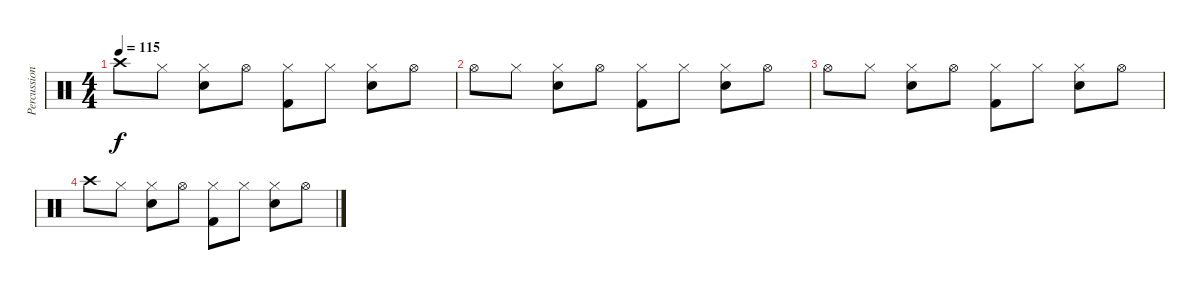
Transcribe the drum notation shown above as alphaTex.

\track ("Percussion" "Percussion") {instrument percussion}
\staff {score}
\articulation defaults
\ts (4 4)
\tempo 115
\clef neutral
\ks c "Crash high (hit)".8{dy f} "Hi-Hat (closed)".8
("Hi-Hat (closed)" "Snare (hit) 2").8 "Hi-Hat (open)".8 ("Hi-Hat (closed)" "Kick (hit) 2").8 "Hi-Hat (closed)".8 ("Hi-Hat (closed)" "Snare (hit) 2").8 "Hi-Hat (open)".8 |
"Hi-Hat (open)".8 "Hi-Hat (closed)".8 ("Hi-Hat (closed)" "Snare (hit) 2").8 "Hi-Hat (open)".8 ("Hi-Hat (closed)" "Kick (hit) 2").8 "Hi-Hat (closed)".8 ("Hi-Hat (closed)" "Snare (hit) 2").8 "Hi-Hat (open)".8 |
"Hi-Hat (open)".8 "Hi-Hat (closed)".8 ("Hi-Hat (closed)" "Snare (hit) 2").8 "Hi-Hat (open)".8 ("Hi-Hat (closed)" "Kick (hit) 2").8 "Hi-Hat (closed)".8 ("Hi-Hat (closed)" "Snare (hit) 2").8 "Hi-Hat (open)".8 |
"Crash high (hit)".8{volume 1} "Hi-Hat (closed)".8 ("Hi-Hat (closed)" "Snare (hit) 2").8 "Hi-Hat (open)".8 ("Hi-Hat (closed)" "Kick (hit) 2").8 "Hi-Hat (closed)".8 ("Hi-Hat (closed)" "Snare (hit) 2").8 "Hi-Hat (open)".8
